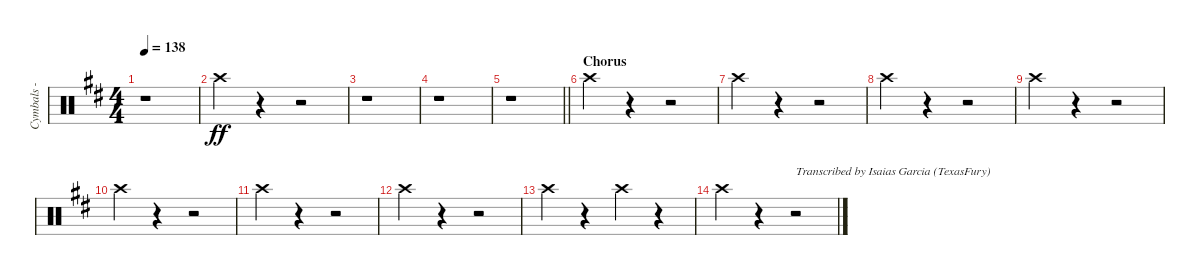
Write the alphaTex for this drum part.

\track ("Cymbals - crash" "Cymbals - ") {instrument percussion}
\staff {score}
\articulation defaults
\ts (4 4)
\tempo 138
\clef neutral
\ks d
r.1{dy ff} |
"Crash high (hit)".4 r.4 r.2 |
r.1 |
r.1 |
\barLineRight lightlight
r.1 |
\section ("" "Chorus")
"Crash high (hit)".4 r.4 r.2 |
"Crash high (hit)".4 r.4 r.2 |
"Crash high (hit)".4 r.4 r.2 |
"Crash high (hit)".4 r.4 r.2 |
"Crash high (hit)".4 r.4 r.2 |
"Crash high (hit)".4 r.4 r.2 |
"Crash high (hit)".4 r.4 r.2 |
"Crash high (hit)".4 r.4 "Crash high (hit)".4 r.4 |
"Crash high (hit)".4{volume 0} r.4 r.2{txt "Transcribed by Isaias Garcia (TexasFury)"}
